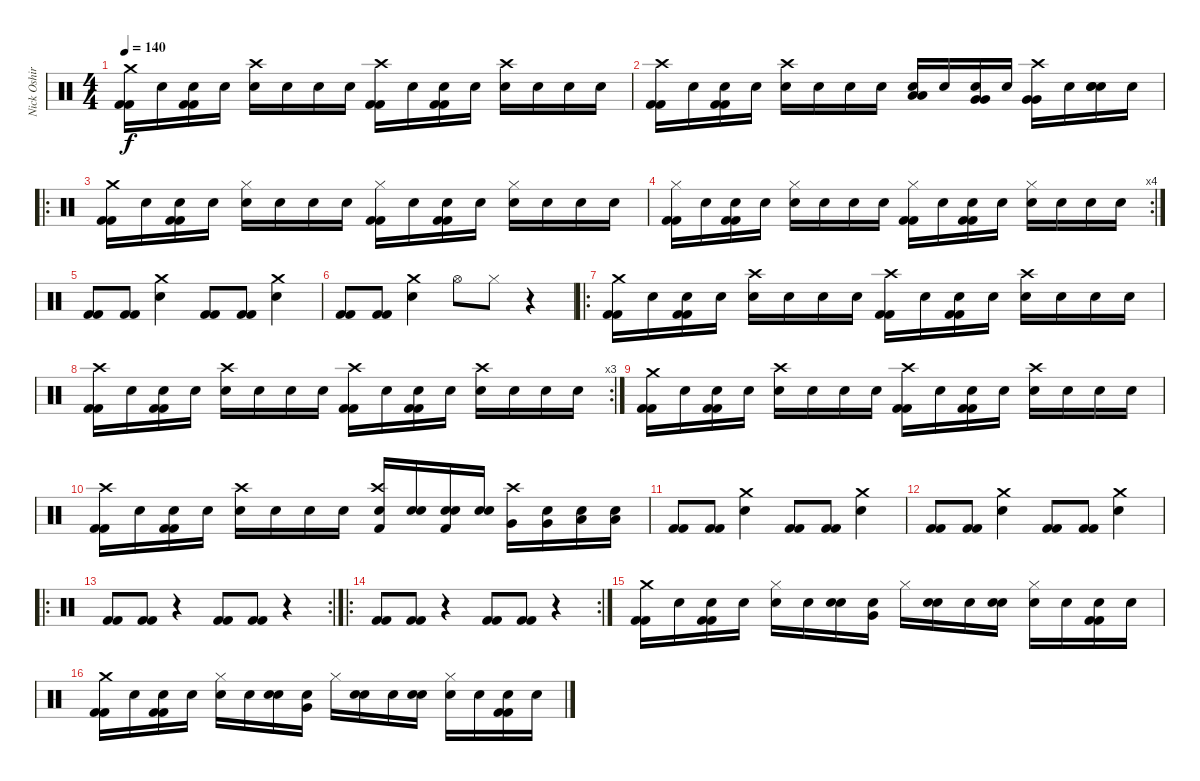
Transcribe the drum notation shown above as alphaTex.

\track ("Nick Oshiro [drums]" "Nick Oshir") {instrument percussion}
\staff {score}
\articulation defaults
\ts (4 4)
\tempo 140
\clef neutral
\ks c
("Crash medium (hit)" "Kick (hit) 2" "Kick (hit) 2").16{dy f} "Snare (hit)".16 ("Snare (hit)" "Kick (hit) 2" "Kick (hit) 2").16 "Snare (hit)".16 ("Crash high (hit)" "Electric Snare (hit)").16 "Snare (hit)".16 "Snare (hit)".16 "Snare (hit)".16 ("Crash high (hit)" "Kick (hit) 2" "Kick (hit) 2").16 "Snare (hit)".16 ("Snare (hit)" "Kick (hit) 2" "Kick (hit) 2").16 "Snare (hit)".16 ("Crash high (hit)" "Electric Snare (hit)").16 "Snare (hit)".16 "Snare (hit)".16 "Snare (hit)".16 |
("Crash high (hit)" "Kick (hit) 2" "Kick (hit) 2").16 "Snare (hit)".16 ("Snare (hit)" "Kick (hit) 2" "Kick (hit) 2").16 "Snare (hit)".16 ("Crash high (hit)" "Electric Snare (hit)").16 "Snare (hit)".16 "Snare (hit)".16 "Snare (hit)".16 ("Snare (hit)" "Low Floor Tom (hit)" "Low Floor Tom (hit)").16 "Snare (hit)".16 ("Snare (hit)" "Very Low Tom (hit)" "Very Low Tom (hit)").16 "Snare (hit)".16 ("Crash high (hit)" "Very Low Tom (hit)" "Very Low Tom (hit)").16 "Snare (hit)".16 ("Snare (hit)" "Electric Snare (hit)" "Electric Snare (hit)").16 "Snare (hit)".16 |
\ro
("Crash medium (hit)" "Kick (hit) 2" "Kick (hit) 2").16 "Snare (hit)".16 ("Snare (hit)" "Kick (hit) 2" "Kick (hit) 2").16 "Snare (hit)".16 ("Hi-Hat (closed)" "Electric Snare (hit)").16 "Snare (hit)".16 "Snare (hit)".16 "Snare (hit)".16 ("Hi-Hat (closed)" "Kick (hit) 2" "Kick (hit) 2").16 "Snare (hit)".16 ("Snare (hit)" "Kick (hit) 2" "Kick (hit) 2").16 "Snare (hit)".16 ("Hi-Hat (closed)" "Electric Snare (hit)").16 "Snare (hit)".16 "Snare (hit)".16 "Snare (hit)".16 |
\rc 4
("Hi-Hat (closed)" "Kick (hit) 2" "Kick (hit) 2").16 "Snare (hit)".16 ("Snare (hit)" "Kick (hit) 2" "Kick (hit) 2").16 "Snare (hit)".16 ("Hi-Hat (closed)" "Electric Snare (hit)").16 "Snare (hit)".16 "Snare (hit)".16 "Snare (hit)".16 ("Hi-Hat (closed)" "Kick (hit) 2" "Kick (hit) 2").16 "Snare (hit)".16 ("Snare (hit)" "Kick (hit) 2" "Kick (hit) 2").16 "Snare (hit)".16 ("Hi-Hat (closed)" "Electric Snare (hit)").16 "Snare (hit)".16 "Snare (hit)".16 "Snare (hit)".16 |
("Kick (hit) 2" "Kick (hit) 2").8 ("Kick (hit) 2" "Kick (hit) 2").8 ("Crash medium (hit)" "Electric Snare (hit)").4 ("Kick (hit) 2" "Kick (hit) 2").8 ("Kick (hit) 2" "Kick (hit) 2").8 ("Crash medium (hit)" "Electric Snare (hit)").4 |
("Kick (hit) 2" "Kick (hit) 2").8 ("Kick (hit) 2" "Kick (hit) 2").8 ("Crash medium (hit)" "Electric Snare (hit)").4 "Hi-Hat (open)".8 "Hi-Hat (closed)".8 r.4 |
\ro
("Crash medium (hit)" "Kick (hit) 2" "Kick (hit) 2").16 "Snare (hit)".16 ("Snare (hit)" "Kick (hit) 2" "Kick (hit) 2").16 "Snare (hit)".16 ("Crash high (hit)" "Electric Snare (hit)").16 "Snare (hit)".16 "Snare (hit)".16 "Snare (hit)".16 ("Crash high (hit)" "Kick (hit) 2" "Kick (hit) 2").16 "Snare (hit)".16 ("Snare (hit)" "Kick (hit) 2" "Kick (hit) 2").16 "Snare (hit)".16 ("Crash high (hit)" "Electric Snare (hit)").16 "Snare (hit)".16 "Snare (hit)".16 "Snare (hit)".16 |
\rc 3
("Crash high (hit)" "Kick (hit) 2" "Kick (hit) 2").16 "Snare (hit)".16 ("Snare (hit)" "Kick (hit) 2" "Kick (hit) 2").16 "Snare (hit)".16 ("Crash high (hit)" "Electric Snare (hit)").16 "Snare (hit)".16 "Snare (hit)".16 "Snare (hit)".16 ("Crash high (hit)" "Kick (hit) 2" "Kick (hit) 2").16 "Snare (hit)".16 ("Snare (hit)" "Kick (hit) 2" "Kick (hit) 2").16 "Snare (hit)".16 ("Crash high (hit)" "Electric Snare (hit)").16 "Snare (hit)".16 "Snare (hit)".16 "Snare (hit)".16 |
("Crash medium (hit)" "Kick (hit) 2" "Kick (hit) 2").16 "Snare (hit)".16 ("Snare (hit)" "Kick (hit) 2" "Kick (hit) 2").16 "Snare (hit)".16 ("Crash high (hit)" "Electric Snare (hit)").16 "Snare (hit)".16 "Snare (hit)".16 "Snare (hit)".16 ("Crash high (hit)" "Kick (hit) 2" "Kick (hit) 2").16 "Snare (hit)".16 ("Snare (hit)" "Kick (hit) 2" "Kick (hit) 2").16 "Snare (hit)".16 ("Crash high (hit)" "Electric Snare (hit)").16 "Snare (hit)".16 "Snare (hit)".16 "Snare (hit)".16 |
("Crash high (hit)" "Kick (hit) 2" "Kick (hit) 2").16 "Snare (hit)".16 ("Snare (hit)" "Kick (hit) 2" "Kick (hit) 2").16 "Snare (hit)".16 ("Crash high (hit)" "Electric Snare (hit)").16 "Snare (hit)".16 "Snare (hit)".16 "Snare (hit)".16 ("Crash high (hit)" "Electric Snare (hit)" "Kick (hit) 2").16 ("Snare (hit)" "Electric Snare (hit)").16 ("Snare (hit)" "Electric Snare (hit)" "Kick (hit) 2").16 ("Snare (hit)" "Electric Snare (hit)").16 ("Crash high (hit)" "Very Low Tom (hit)").16 ("Snare (hit)" "Very Low Tom (hit)").16 ("Snare (hit)" "Low Floor Tom (hit)").16 ("Snare (hit)" "Low Floor Tom (hit)").16 |
("Kick (hit) 2" "Kick (hit) 2").8 ("Kick (hit) 2" "Kick (hit) 2").8 ("Crash medium (hit)" "Electric Snare (hit)").4 ("Kick (hit) 2" "Kick (hit) 2").8 ("Kick (hit) 2" "Kick (hit) 2").8 ("Crash medium (hit)" "Electric Snare (hit)").4 |
("Kick (hit) 2" "Kick (hit) 2").8 ("Kick (hit) 2" "Kick (hit) 2").8 ("Crash medium (hit)" "Electric Snare (hit)").4 ("Kick (hit) 2" "Kick (hit) 2").8 ("Kick (hit) 2" "Kick (hit) 2").8 ("Crash medium (hit)" "Electric Snare (hit)").4 |
\ro
\rc 2
("Kick (hit) 2" "Kick (hit) 2").8 ("Kick (hit) 2" "Kick (hit) 2").8 r.4 ("Kick (hit) 2" "Kick (hit) 2").8 ("Kick (hit) 2" "Kick (hit) 2").8 r.4 |
\ro
\rc 2
("Kick (hit) 2" "Kick (hit) 2").8 ("Kick (hit) 2" "Kick (hit) 2").8 r.4 ("Kick (hit) 2" "Kick (hit) 2").8 ("Kick (hit) 2" "Kick (hit) 2").8 r.4 |
("Crash medium (hit)" "Kick (hit) 2" "Kick (hit) 2").16 "Snare (hit)".16 ("Snare (hit)" "Kick (hit) 2" "Kick (hit) 2").16 "Snare (hit)".16 ("Hi-Hat (closed)" "Electric Snare (hit)").16 "Snare (hit)".16 ("Snare (hit)" "Electric Snare (hit)").16 ("Snare (hit)" "Very Low Tom (hit)").16 "Hi-Hat (closed)".16 ("Snare (hit)" "Electric Snare (hit)").16 "Snare (hit)".16 ("Snare (hit)" "Electric Snare (hit)").16 ("Hi-Hat (closed)" "Electric Snare (hit)").16 "Snare (hit)".16 ("Snare (hit)" "Kick (hit) 2" "Kick (hit) 2").16 "Snare (hit)".16 |
("Crash medium (hit)" "Kick (hit) 2" "Kick (hit) 2").16 "Snare (hit)".16 ("Snare (hit)" "Kick (hit) 2" "Kick (hit) 2").16 "Snare (hit)".16 ("Hi-Hat (closed)" "Electric Snare (hit)").16 "Snare (hit)".16 ("Snare (hit)" "Electric Snare (hit)").16 ("Snare (hit)" "Very Low Tom (hit)").16 "Hi-Hat (closed)".16 ("Snare (hit)" "Electric Snare (hit)").16 "Snare (hit)".16 ("Snare (hit)" "Electric Snare (hit)").16 ("Hi-Hat (closed)" "Electric Snare (hit)").16 "Snare (hit)".16 ("Snare (hit)" "Kick (hit) 2" "Kick (hit) 2").16 "Snare (hit)".16
